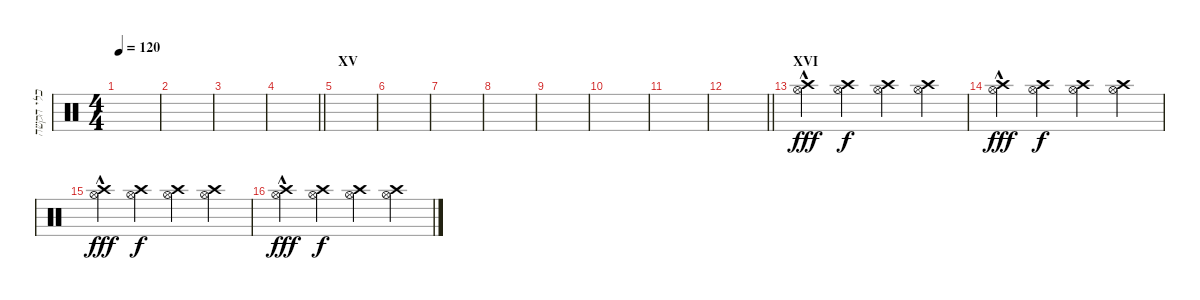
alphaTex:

\track ("כלי הקשה" "כלי הקשה") {instrument percussion}
\staff {score}
\articulation defaults
\ts (4 4)
\tempo 120
\clef neutral
\ks c
|
|
|
\barLineRight lightlight
|
\section ("" "XV")
|
|
|
|
|
|
|
\barLineRight lightlight
|
\section ("" "XVI")
("Crash high (hit)" "Hi-Hat (open)"{hac}).4{dy fff} ("Crash high (hit)" "Hi-Hat (open)").4{dy f} ("Crash high (hit)" "Hi-Hat (open)").4 ("Crash high (hit)" "Hi-Hat (open)").4 |
("Crash high (hit)" "Hi-Hat (open)"{hac}).4{dy fff} ("Crash high (hit)" "Hi-Hat (open)").4{dy f} ("Crash high (hit)" "Hi-Hat (open)").4 ("Crash high (hit)" "Hi-Hat (open)").4 |
("Crash high (hit)" "Hi-Hat (open)"{hac}).4{dy fff} ("Crash high (hit)" "Hi-Hat (open)").4{dy f} ("Crash high (hit)" "Hi-Hat (open)").4 ("Crash high (hit)" "Hi-Hat (open)").4 |
("Crash high (hit)" "Hi-Hat (open)"{hac}).4{dy fff} ("Crash high (hit)" "Hi-Hat (open)").4{dy f} ("Crash high (hit)" "Hi-Hat (open)").4 ("Crash high (hit)" "Hi-Hat (open)").4
